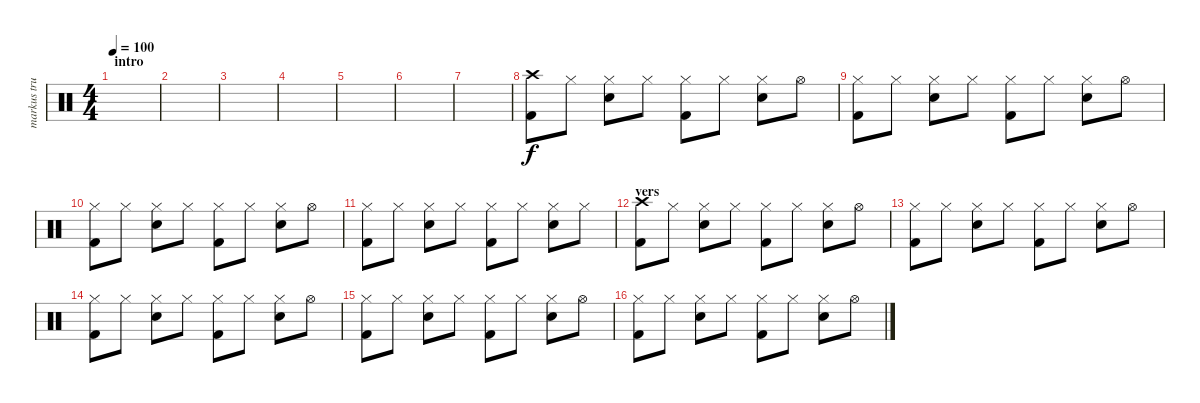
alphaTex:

\track ("markus trummor" "markus tru") {instrument percussion}
\staff {score}
\articulation defaults
\ts (4 4)
\section ("" "intro")
\tempo 100
\clef neutral
\ks c
|
|
|
|
|
|
|
("Crash high (hit)" "Kick (hit) 2").8 "Hi-Hat (closed)".8 ("Hi-Hat (closed)" "Snare (hit) 2").8 "Hi-Hat (closed)".8 ("Hi-Hat (closed)" "Kick (hit) 2").8 "Hi-Hat (closed)".8 ("Hi-Hat (closed)" "Snare (hit) 2").8 "Hi-Hat (open)".8 |
("Hi-Hat (closed)" "Kick (hit) 2").8 "Hi-Hat (closed)".8 ("Hi-Hat (closed)" "Snare (hit) 2").8 "Hi-Hat (closed)".8 ("Hi-Hat (closed)" "Kick (hit) 2").8 "Hi-Hat (closed)".8 ("Hi-Hat (closed)" "Snare (hit) 2").8 "Hi-Hat (open)".8 |
("Hi-Hat (closed)" "Kick (hit) 2").8 "Hi-Hat (closed)".8 ("Hi-Hat (closed)" "Snare (hit) 2").8 "Hi-Hat (closed)".8 ("Hi-Hat (closed)" "Kick (hit) 2").8 "Hi-Hat (closed)".8 ("Hi-Hat (closed)" "Snare (hit) 2").8 "Hi-Hat (open)".8 |
("Hi-Hat (closed)" "Kick (hit) 2").8 "Hi-Hat (closed)".8 ("Hi-Hat (closed)" "Snare (hit) 2").8 "Hi-Hat (closed)".8 ("Hi-Hat (closed)" "Kick (hit) 2").8 "Hi-Hat (closed)".8 ("Hi-Hat (closed)" "Snare (hit) 2").8 "Hi-Hat (closed)".8 |
\section ("" "vers")
("Crash high (hit)" "Kick (hit) 2").8 "Hi-Hat (closed)".8 ("Hi-Hat (closed)" "Snare (hit) 2").8 "Hi-Hat (closed)".8 ("Hi-Hat (closed)" "Kick (hit) 2").8 "Hi-Hat (closed)".8 ("Hi-Hat (closed)" "Snare (hit) 2").8 "Hi-Hat (open)".8 |
("Hi-Hat (closed)" "Kick (hit) 2").8 "Hi-Hat (closed)".8 ("Hi-Hat (closed)" "Snare (hit) 2").8 "Hi-Hat (closed)".8 ("Hi-Hat (closed)" "Kick (hit) 2").8 "Hi-Hat (closed)".8 ("Hi-Hat (closed)" "Snare (hit) 2").8 "Hi-Hat (open)".8 |
("Hi-Hat (closed)" "Kick (hit) 2").8 "Hi-Hat (closed)".8 ("Hi-Hat (closed)" "Snare (hit) 2").8 "Hi-Hat (closed)".8 ("Hi-Hat (closed)" "Kick (hit) 2").8 "Hi-Hat (closed)".8 ("Hi-Hat (closed)" "Snare (hit) 2").8 "Hi-Hat (open)".8 |
("Hi-Hat (closed)" "Kick (hit) 2").8 "Hi-Hat (closed)".8 ("Hi-Hat (closed)" "Snare (hit) 2").8 "Hi-Hat (closed)".8 ("Hi-Hat (closed)" "Kick (hit) 2").8 "Hi-Hat (closed)".8 ("Hi-Hat (closed)" "Snare (hit) 2").8 "Hi-Hat (open)".8 |
("Hi-Hat (closed)" "Kick (hit) 2").8 "Hi-Hat (closed)".8 ("Hi-Hat (closed)" "Snare (hit) 2").8 "Hi-Hat (closed)".8 ("Hi-Hat (closed)" "Kick (hit) 2").8 "Hi-Hat (closed)".8 ("Hi-Hat (closed)" "Snare (hit) 2").8 "Hi-Hat (open)".8
